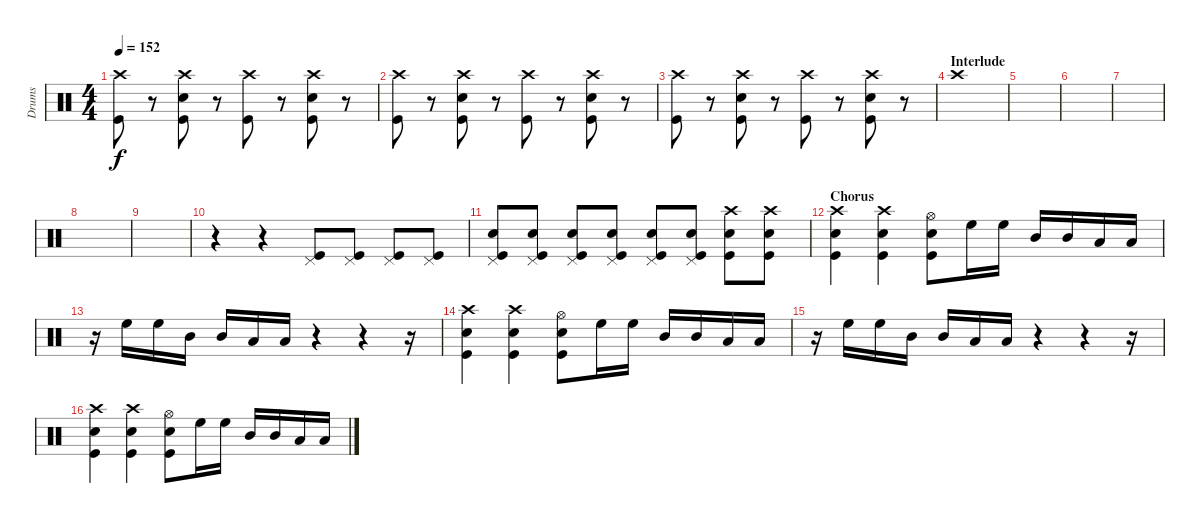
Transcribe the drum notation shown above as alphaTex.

\track ("Drums" "Drums") {instrument percussion}
\staff {score}
\articulation defaults
\ts (4 4)
\tempo 152
\clef neutral
\ks c
("Crash high (hit)" "Kick (hit)").8{dy f} r.8 ("Crash high (hit)" "Electric Snare (hit)" "Kick (hit)").8 r.8 ("Crash high (hit)" "Kick (hit)").8 r.8 ("Crash high (hit)" "Electric Snare (hit)" "Kick (hit)").8 r.8 |
("Crash high (hit)" "Kick (hit)").8 r.8 ("Crash high (hit)" "Electric Snare (hit)" "Kick (hit)").8 r.8 ("Crash high (hit)" "Kick (hit)").8 r.8 ("Crash high (hit)" "Electric Snare (hit)" "Kick (hit)").8 r.8 |
("Crash high (hit)" "Kick (hit)").8 r.8 ("Crash high (hit)" "Electric Snare (hit)" "Kick (hit)").8 r.8 ("Crash high (hit)" "Kick (hit)").8 r.8 ("Crash high (hit)" "Electric Snare (hit)" "Kick (hit)").8 r.8 |
\section ("" "Interlude")
"Crash high (hit)".1 |
|
|
|
|
|
r.4 r.4 ("Pedal Hi-Hat (hit)" "Kick (hit)").8 ("Pedal Hi-Hat (hit)" "Kick (hit)").8 ("Pedal Hi-Hat (hit)" "Kick (hit)").8 ("Pedal Hi-Hat (hit)" "Kick (hit)").8 |
("Pedal Hi-Hat (hit)" "Electric Snare (hit)" "Kick (hit)").8 ("Pedal Hi-Hat (hit)" "Electric Snare (hit)" "Kick (hit)").8 ("Pedal Hi-Hat (hit)" "Electric Snare (hit)" "Kick (hit)").8 ("Pedal Hi-Hat (hit)" "Electric Snare (hit)" "Kick (hit)").8 ("Pedal Hi-Hat (hit)" "Electric Snare (hit)" "Kick (hit)").8 ("Pedal Hi-Hat (hit)" "Electric Snare (hit)" "Kick (hit)").8 ("Crash high (hit)" "Electric Snare (hit)" "Kick (hit)").8 ("Crash high (hit)" "Electric Snare (hit)" "Kick (hit)").8 |
\section ("" "Chorus")
("Crash high (hit)" "Electric Snare (hit)" "Kick (hit)").4 ("Crash high (hit)" "Electric Snare (hit)" "Kick (hit)").4 ("Hi-Hat (open)" "Electric Snare (hit)" "Kick (hit)").8 "High Floor Tom (hit)".16 "High Floor Tom (hit)".16 "Mid Tom (hit)".16 "Mid Tom (hit)".16 "Low Tom (hit)".16 "Low Tom (hit)".16 |
r.16 "High Floor Tom (hit)".16 "High Floor Tom (hit)".16 "Mid Tom (hit)".16 "Mid Tom (hit)".16 "Low Tom (hit)".16 "Low Tom (hit)".16 r.4 r.4 r.16 |
("Crash high (hit)" "Electric Snare (hit)" "Kick (hit)").4 ("Crash high (hit)" "Electric Snare (hit)" "Kick (hit)").4 ("Hi-Hat (open)" "Electric Snare (hit)" "Kick (hit)").8 "High Floor Tom (hit)".16 "High Floor Tom (hit)".16 "Mid Tom (hit)".16 "Mid Tom (hit)".16 "Low Tom (hit)".16 "Low Tom (hit)".16 |
r.16 "High Floor Tom (hit)".16 "High Floor Tom (hit)".16 "Mid Tom (hit)".16 "Mid Tom (hit)".16 "Low Tom (hit)".16 "Low Tom (hit)".16 r.4 r.4 r.16 |
("Crash high (hit)" "Electric Snare (hit)" "Kick (hit)").4 ("Crash high (hit)" "Electric Snare (hit)" "Kick (hit)").4 ("Hi-Hat (open)" "Electric Snare (hit)" "Kick (hit)").8 "High Floor Tom (hit)".16 "High Floor Tom (hit)".16 "Mid Tom (hit)".16 "Mid Tom (hit)".16 "Low Tom (hit)".16 "Low Tom (hit)".16
